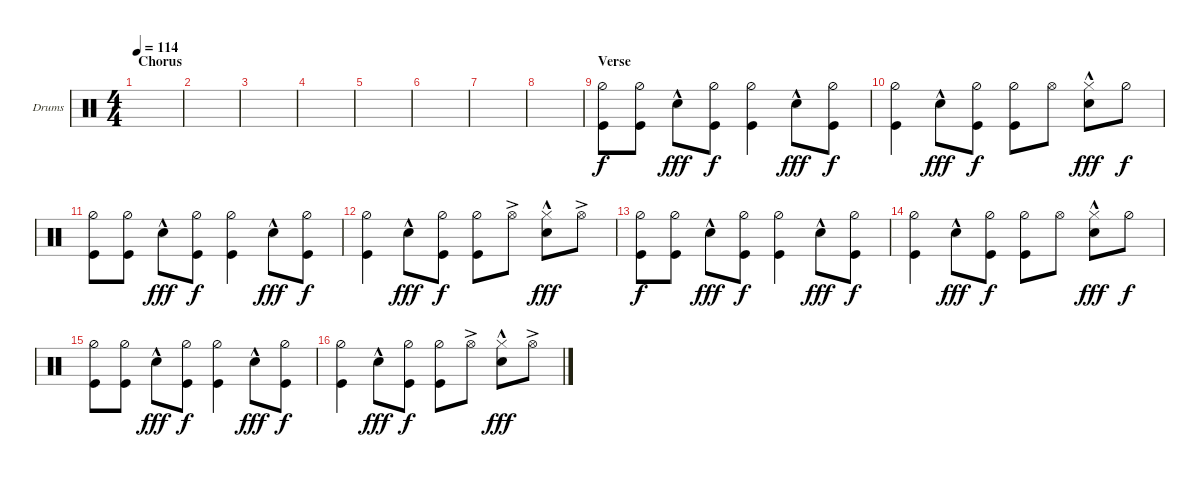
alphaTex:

\defaultSystemsLayout 4
\bracketExtendMode groupsimilarinstruments
\firstSystemTrackNameOrientation horizontal
\otherSystemsTrackNameOrientation horizontal
\track ("Drumkit" "Drums") {instrument percussion}
\staff {score}
\articulation defaults
\ts (4 4)
\section ("" "Chorus")
\tempo 114
\clef neutral
\scale
0.333333
\ks c
|
\scale
0.333333 |
\scale
0.333333 |
\scale
0.333333 |
\scale
0.333333 |
\scale
0.333333 |
\scale
0.333333 |
|
\section ("" "Verse")
("Hi-Hat (half)" "Kick (hit)").8{dy f} ("Hi-Hat (half)" "Kick (hit)").8 "Snare (hit) 2"{hac}.8{dy fff} ("Kick (hit)" "Hi-Hat (half)").8{dy f} ("Kick (hit)" "Hi-Hat (half)").4 "Snare (hit) 2"{hac}.8{dy fff} ("Kick (hit)" "Hi-Hat (half)").8{dy f} |
("Kick (hit)" "Hi-Hat (half)").4 "Snare (hit) 2"{hac}.8{dy fff} ("Kick (hit)" "Hi-Hat (half)").8{dy f} ("Kick (hit)" "Hi-Hat (half)").8 "Hi-Hat (open)".8 ("Hi-Hat (closed)" "Snare (hit) 2"{hac}).8{dy fff} "Hi-Hat (half)".8{dy f} |
("Hi-Hat (half)" "Kick (hit)").8 ("Hi-Hat (half)" "Kick (hit)").8 "Snare (hit) 2"{hac}.8{dy fff} ("Kick (hit)" "Hi-Hat (half)").8{dy f} ("Kick (hit)" "Hi-Hat (half)").4 "Snare (hit) 2"{hac}.8{dy fff} ("Kick (hit)" "Hi-Hat (half)").8{dy f} |
("Kick (hit)" "Hi-Hat (half)").4 "Snare (hit) 2"{hac}.8{dy fff} ("Kick (hit)" "Hi-Hat (half)").8{dy f} ("Kick (hit)" "Hi-Hat (half)").8 "Hi-Hat (open)"{ac}.8 ("Snare (hit) 2"{hac} "Hi-Hat (closed)").8{dy fff} "Hi-Hat (open)"{ac}.8 |
("Hi-Hat (half)" "Kick (hit)").8{dy f} ("Hi-Hat (half)" "Kick (hit)").8 "Snare (hit) 2"{hac}.8{dy fff} ("Kick (hit)" "Hi-Hat (half)").8{dy f} ("Kick (hit)" "Hi-Hat (half)").4 "Snare (hit) 2"{hac}.8{dy fff} ("Kick (hit)" "Hi-Hat (half)").8{dy f} |
("Kick (hit)" "Hi-Hat (half)").4 "Snare (hit) 2"{hac}.8{dy fff} ("Kick (hit)" "Hi-Hat (half)").8{dy f} ("Kick (hit)" "Hi-Hat (half)").8 "Hi-Hat (open)".8 ("Hi-Hat (closed)" "Snare (hit) 2"{hac}).8{dy fff} "Hi-Hat (half)".8{dy f} |
("Hi-Hat (half)" "Kick (hit)").8 ("Hi-Hat (half)" "Kick (hit)").8 "Snare (hit) 2"{hac}.8{dy fff} ("Kick (hit)" "Hi-Hat (half)").8{dy f} ("Kick (hit)" "Hi-Hat (half)").4 "Snare (hit) 2"{hac}.8{dy fff} ("Kick (hit)" "Hi-Hat (half)").8{dy f} |
("Kick (hit)" "Hi-Hat (half)").4 "Snare (hit) 2"{hac}.8{dy fff} ("Kick (hit)" "Hi-Hat (half)").8{dy f} ("Kick (hit)" "Hi-Hat (half)").8 "Hi-Hat (open)"{ac}.8 ("Snare (hit) 2"{hac} "Hi-Hat (closed)").8{dy fff} "Hi-Hat (open)"{ac}.8
